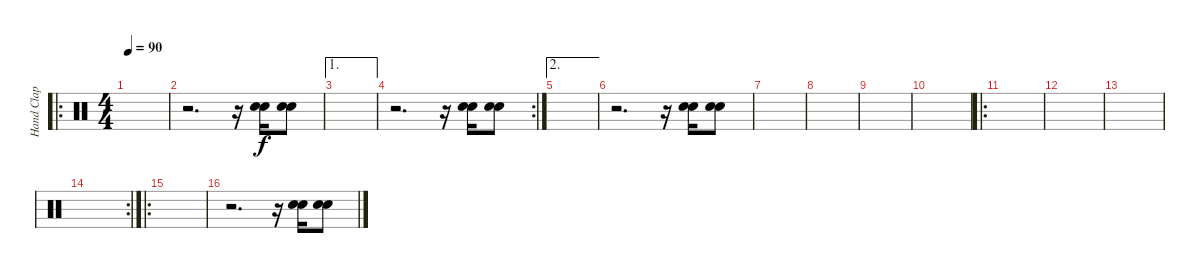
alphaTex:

\track ("Hand Clap" "Hand Clap") {instrument percussion}
\staff {score}
\articulation defaults
\ro
\ts (4 4)
\tempo 90
\clef neutral
\ks c
|
r.2{d} r.16 ("Hand Clap (hit)" "Hand Clap (hit)").16 ("Hand Clap (hit)" "Hand Clap (hit)").8 |
\ae 1
|
\rc 2
r.2{d} r.16 ("Hand Clap (hit)" "Hand Clap (hit)").16 ("Hand Clap (hit)" "Hand Clap (hit)").8 |
\ae 2
|
r.2{d} r.16 ("Hand Clap (hit)" "Hand Clap (hit)").16 ("Hand Clap (hit)" "Hand Clap (hit)").8 |
|
|
|
|
\ro
|
|
|
\rc 2
|
\ro
|
r.2{d} r.16 ("Hand Clap (hit)" "Hand Clap (hit)").16 ("Hand Clap (hit)" "Hand Clap (hit)").8
